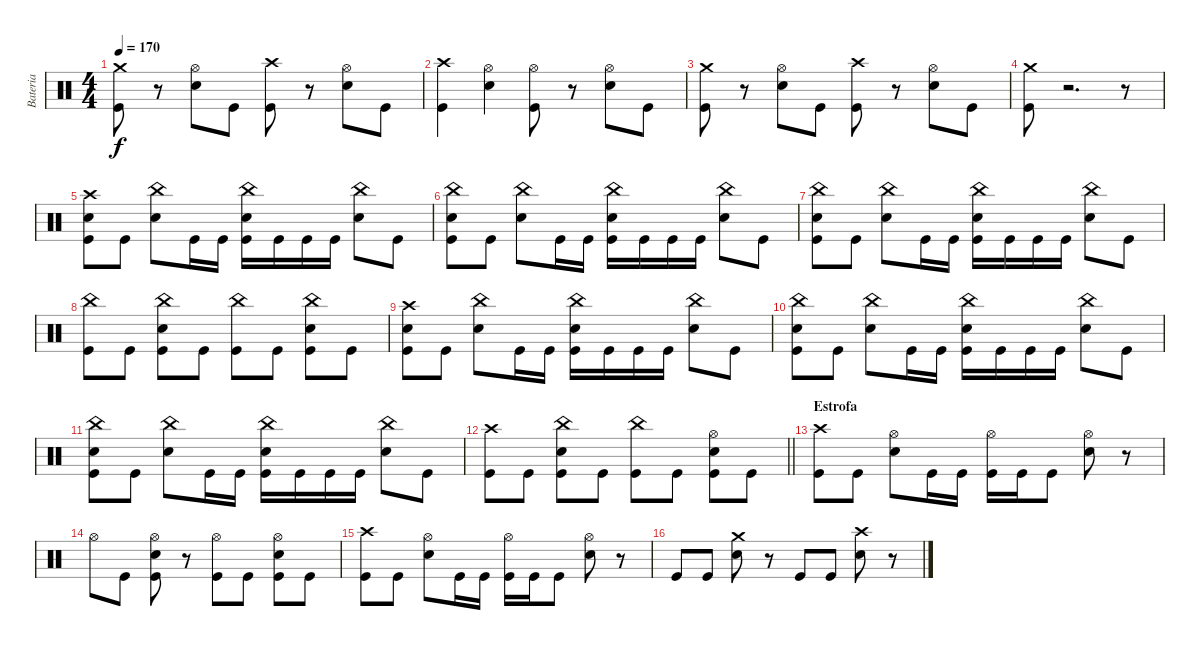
\track ("Bateria" "Bateria") {instrument percussion}
\staff {score}
\articulation defaults
\ts (4 4)
\tempo 170
\clef neutral
\ks c
("Kick (hit)" "Crash medium (hit)").8{dy f} r.8 ("Snare (hit) 2" "Hi-Hat (open)").8 "Kick (hit)".8 ("Kick (hit)" "Crash high (hit)").8 r.8 ("Snare (hit) 2" "Hi-Hat (open)").8 "Kick (hit)".8 |
("Kick (hit)" "Crash high (hit)").4 ("Snare (hit) 2" "Hi-Hat (open)").4 ("Kick (hit)" "Hi-Hat (open)").8 r.8 ("Snare (hit) 2" "Hi-Hat (open)").8 "Kick (hit)".8 |
("Kick (hit)" "Crash medium (hit)").8 r.8 ("Snare (hit) 2" "Hi-Hat (open)").8 "Kick (hit)".8 ("Kick (hit)" "Crash high (hit)").8 r.8 ("Snare (hit) 2" "Hi-Hat (open)").8 "Kick (hit)".8 |
("Kick (hit)" "Crash medium (hit)").8 r.2{d} r.8 |
("Snare (hit) 2" "Kick (hit)" "Crash high (hit)").8 "Kick (hit)".8 ("Snare (hit) 2" "China (hit)").8 "Kick (hit)".16 "Kick (hit)".16 ("Snare (hit) 2" "Kick (hit)" "China (hit)").16 "Kick (hit)".16 "Kick (hit)".16 "Kick (hit)".16 ("Snare (hit) 2" "China (hit)").8 "Kick (hit)".8 |
("Snare (hit) 2" "Kick (hit)" "China (hit)").8 "Kick (hit)".8 ("Snare (hit) 2" "China (hit)").8 "Kick (hit)".16 "Kick (hit)".16 ("Snare (hit) 2" "Kick (hit)" "China (hit)").16 "Kick (hit)".16 "Kick (hit)".16 "Kick (hit)".16 ("Snare (hit) 2" "China (hit)").8 "Kick (hit)".8 |
("Snare (hit) 2" "Kick (hit)" "China (hit)").8 "Kick (hit)".8 ("Snare (hit) 2" "China (hit)").8 "Kick (hit)".16 "Kick (hit)".16 ("Snare (hit) 2" "Kick (hit)" "China (hit)").16 "Kick (hit)".16 "Kick (hit)".16 "Kick (hit)".16 ("Snare (hit) 2" "China (hit)").8 "Kick (hit)".8 |
("Kick (hit)" "China (hit)").8 "Kick (hit)".8 ("Snare (hit) 2" "Kick (hit)" "China (hit)").8 "Kick (hit)".8 ("Kick (hit)" "China (hit)").8 "Kick (hit)".8 ("Snare (hit) 2" "Kick (hit)" "China (hit)").8 "Kick (hit)".8 |
("Snare (hit) 2" "Kick (hit)" "Crash high (hit)").8 "Kick (hit)".8 ("Snare (hit) 2" "China (hit)").8 "Kick (hit)".16 "Kick (hit)".16 ("Snare (hit) 2" "Kick (hit)" "China (hit)").16 "Kick (hit)".16 "Kick (hit)".16 "Kick (hit)".16 ("Snare (hit) 2" "China (hit)").8 "Kick (hit)".8 |
("Snare (hit) 2" "Kick (hit)" "China (hit)").8 "Kick (hit)".8 ("Snare (hit) 2" "China (hit)").8 "Kick (hit)".16 "Kick (hit)".16 ("Snare (hit) 2" "Kick (hit)" "China (hit)").16 "Kick (hit)".16 "Kick (hit)".16 "Kick (hit)".16 ("Snare (hit) 2" "China (hit)").8 "Kick (hit)".8 |
("Snare (hit) 2" "Kick (hit)" "China (hit)").8 "Kick (hit)".8 ("Snare (hit) 2" "China (hit)").8 "Kick (hit)".16 "Kick (hit)".16 ("Snare (hit) 2" "Kick (hit)" "China (hit)").16 "Kick (hit)".16 "Kick (hit)".16 "Kick (hit)".16 ("Snare (hit) 2" "China (hit)").8 "Kick (hit)".8 |
\barLineRight lightlight
("Kick (hit)" "Crash high (hit)").8 "Kick (hit)".8 ("Snare (hit) 2" "Kick (hit)" "China (hit)").8 "Kick (hit)".8 ("Kick (hit)" "China (hit)").8 "Kick (hit)".8 ("Snare (hit) 2" "Kick (hit)" "Hi-Hat (open)").8 "Kick (hit)".8 |
\section ("" "Estrofa")
("Kick (hit)" "Crash high (hit)").8 "Kick (hit)".8 ("Snare (hit) 2" "Hi-Hat (open)").8 "Kick (hit)".16 "Kick (hit)".16 ("Kick (hit)" "Hi-Hat (open)").16 "Kick (hit)".16 "Kick (hit)".8 ("Snare (hit) 2" "Hi-Hat (open)").8 r.8 |
"Hi-Hat (open)".8 "Kick (hit)".8 ("Snare (hit) 2" "Kick (hit)" "Hi-Hat (open)").8 r.8 ("Kick (hit)" "Hi-Hat (open)").8 "Kick (hit)".8 ("Snare (hit) 2" "Kick (hit)" "Hi-Hat (open)").8 "Kick (hit)".8 |
("Kick (hit)" "Crash high (hit)").8 "Kick (hit)".8 ("Snare (hit) 2" "Hi-Hat (open)").8 "Kick (hit)".16 "Kick (hit)".16 ("Kick (hit)" "Hi-Hat (open)").16 "Kick (hit)".16 "Kick (hit)".8 ("Snare (hit) 2" "Hi-Hat (open)").8 r.8 |
"Kick (hit)".8 "Kick (hit)".8 ("Snare (hit) 2" "Crash medium (hit)").8 r.8 "Kick (hit)".8 "Kick (hit)".8 ("Snare (hit) 2" "Crash high (hit)").8 r.8
